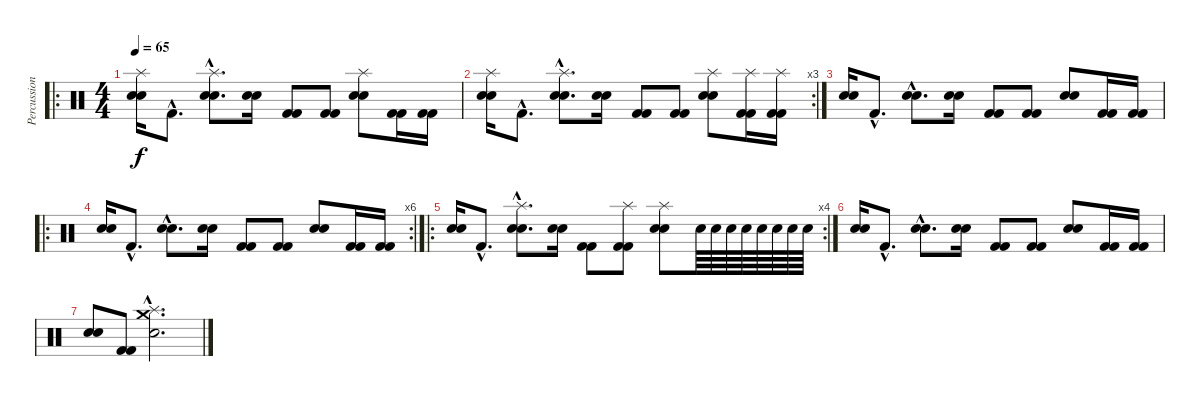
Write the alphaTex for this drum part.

\track ("Percussions" "Percussion") {instrument percussion}
\staff {score}
\articulation defaults
\ro
\ts (4 4)
\tempo 65
\clef neutral
\ks c
("Snare (hit) 2" "Snare (hit) 2" "Splash (hit)").16{dy f} "Kick (hit) 2"{hac}.8{d} ("Snare (hit) 2"{hac} "Electric Snare (hit)"{hac} "Splash (hit)"{hac}).8{d} ("Snare (hit) 2" "Snare (hit) 2").16 ("Kick (hit) 2" "Kick (hit) 2").8 ("Kick (hit) 2" "Kick (hit) 2").8 ("Snare (hit) 2" "Snare (hit) 2" "Splash (hit)").8 ("Kick (hit) 2" "Kick (hit) 2").16 ("Kick (hit) 2" "Kick (hit) 2").16 |
\rc 3
("Snare (hit) 2" "Snare (hit) 2" "Splash (hit)").16 "Kick (hit) 2"{hac}.8{d} ("Snare (hit) 2"{hac} "Electric Snare (hit)"{hac} "Splash (hit)"{hac}).8{d} ("Snare (hit) 2" "Snare (hit) 2").16 ("Kick (hit) 2" "Kick (hit) 2").8 ("Kick (hit) 2" "Kick (hit) 2").8 ("Snare (hit) 2" "Snare (hit) 2" "Splash (hit)").8 ("Kick (hit) 2" "Kick (hit) 2" "Splash (hit)").16 ("Kick (hit) 2" "Kick (hit) 2" "Splash (hit)").16 |
("Snare (hit) 2" "Snare (hit) 2").16 "Kick (hit) 2"{hac}.8{d} ("Snare (hit) 2"{hac} "Electric Snare (hit)"{hac}).8{d} ("Snare (hit) 2" "Snare (hit) 2").16 ("Kick (hit) 2" "Kick (hit) 2").8 ("Kick (hit) 2" "Kick (hit) 2").8 ("Snare (hit) 2" "Snare (hit) 2").8 ("Kick (hit) 2" "Kick (hit) 2").16 ("Kick (hit) 2" "Kick (hit) 2").16 |
\ro
\rc 6
("Snare (hit) 2" "Snare (hit) 2").16 "Kick (hit) 2"{hac}.8{d} ("Snare (hit) 2"{hac} "Electric Snare (hit)"{hac}).8{d} ("Snare (hit) 2" "Snare (hit) 2").16 ("Kick (hit) 2" "Kick (hit) 2").8 ("Kick (hit) 2" "Kick (hit) 2").8 ("Snare (hit) 2" "Snare (hit) 2").8 ("Kick (hit) 2" "Kick (hit) 2").16 ("Kick (hit) 2" "Kick (hit) 2").16 |
\ro
\rc 4
("Snare (hit) 2" "Snare (hit) 2").16 "Kick (hit) 2"{hac}.8{d} ("Snare (hit) 2"{hac} "Electric Snare (hit)"{hac} "Splash (hit)"{hac}).8{d} ("Snare (hit) 2" "Snare (hit) 2").16 ("Kick (hit) 2" "Kick (hit) 2").8 ("Kick (hit) 2" "Kick (hit) 2" "Splash (hit)").8 ("Snare (hit) 2" "Snare (hit) 2" "Splash (hit)").8 "Snare (hit) 2".64 "Snare (hit) 2".64 "Snare (hit) 2".64 "Snare (hit) 2".64 "Snare (hit) 2".64 "Snare (hit) 2".64 "Snare (hit) 2".64 "Snare (hit) 2".64 |
("Snare (hit) 2" "Snare (hit) 2").16 "Kick (hit) 2"{hac}.8{d} ("Snare (hit) 2"{hac} "Electric Snare (hit)"{hac}).8{d} ("Snare (hit) 2" "Snare (hit) 2").16 ("Kick (hit) 2" "Kick (hit) 2").8 ("Kick (hit) 2" "Kick (hit) 2").8 ("Snare (hit) 2" "Snare (hit) 2").8 ("Kick (hit) 2" "Kick (hit) 2").16 ("Kick (hit) 2" "Kick (hit) 2").16 |
("Snare (hit) 2" "Snare (hit) 2").8 ("Kick (hit) 2" "Kick (hit) 2").8 ("Snare (hit) 2"{hac} "Splash (hit)"{hac} "Crash medium (hit)"{hac}).2{d}
